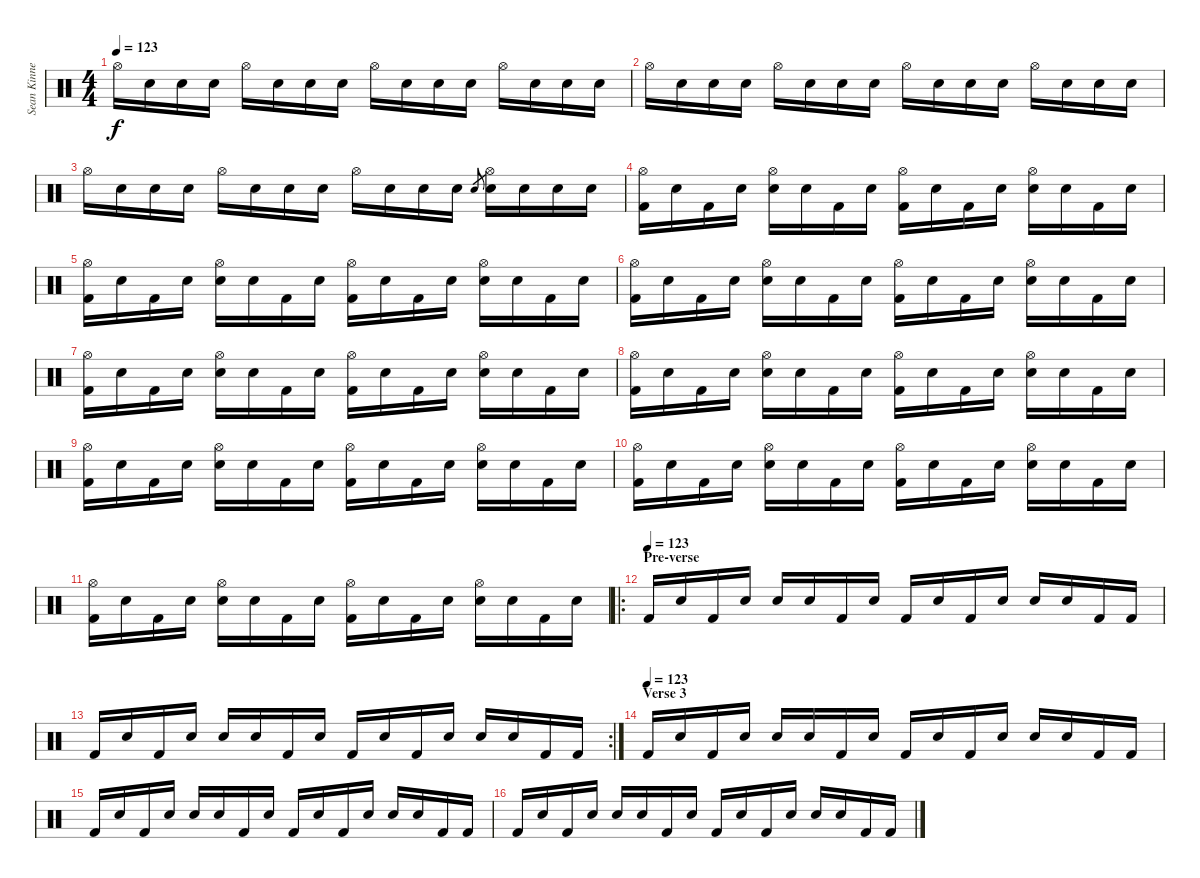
\track ("Sean Kinney - Drums" "Sean Kinne") {instrument percussion}
\staff {score}
\articulation defaults
\ts (4 4)
\tempo 123
\clef neutral
\ks c "Hi-Hat (open)".16{dy f} "Snare (hit)".16 "Snare (hit)".16 "Snare (hit)".16 "Hi-Hat (open)".16 "Snare (hit)".16 "Snare (hit)".16 "Snare (hit)".16 "Hi-Hat (open)".16 "Snare (hit)".16 "Snare (hit)".16 "Snare (hit)".16 "Hi-Hat (open)".16 "Snare (hit)".16 "Snare (hit)".16 "Snare (hit)".16
|
"Hi-Hat (open)".16 "Snare (hit)".16 "Snare (hit)".16 "Snare (hit)".16 "Hi-Hat (open)".16 "Snare (hit)".16 "Snare (hit)".16 "Snare (hit)".16 "Hi-Hat (open)".16 "Snare (hit)".16 "Snare (hit)".16 "Snare (hit)".16 "Hi-Hat (open)".16 "Snare (hit)".16 "Snare (hit)".16 "Snare (hit)".16 |
"Hi-Hat (open)".16 "Snare (hit)".16 "Snare (hit)".16 "Snare (hit)".16 "Hi-Hat (open)".16 "Snare (hit)".16 "Snare (hit)".16 "Snare (hit)".16 "Hi-Hat (open)".16 "Snare (hit)".16 "Snare (hit)".16 "Snare (hit)".16 "Electric Snare (hit)".8{gr} ("Hi-Hat (open)" "Electric Snare (hit)").16 "Snare (hit)".16 "Snare (hit)".16 "Snare (hit)".16 |
("Hi-Hat (open)" "Kick (hit) 2").16 "Snare (hit)".16 "Kick (hit) 2".16 "Snare (hit)".16 ("Hi-Hat (open)" "Electric Snare (hit)").16 "Snare (hit)".16 "Kick (hit) 2".16 "Snare (hit)".16 ("Hi-Hat (open)" "Kick (hit) 2").16 "Snare (hit)".16 "Kick (hit) 2".16 "Snare (hit)".16 ("Hi-Hat (open)" "Electric Snare (hit)").16 "Snare (hit)".16 "Kick (hit) 2".16 "Snare (hit)".16 |
("Hi-Hat (open)" "Kick (hit) 2").16 "Snare (hit)".16 "Kick (hit) 2".16 "Snare (hit)".16 ("Hi-Hat (open)" "Electric Snare (hit)").16 "Snare (hit)".16 "Kick (hit) 2".16 "Snare (hit)".16 ("Hi-Hat (open)" "Kick (hit) 2").16 "Snare (hit)".16 "Kick (hit) 2".16 "Snare (hit)".16 ("Hi-Hat (open)" "Electric Snare (hit)").16 "Snare (hit)".16 "Kick (hit) 2".16 "Snare (hit)".16 |
("Hi-Hat (open)" "Kick (hit) 2").16 "Snare (hit)".16 "Kick (hit) 2".16 "Snare (hit)".16 ("Hi-Hat (open)" "Electric Snare (hit)").16 "Snare (hit)".16 "Kick (hit) 2".16 "Snare (hit)".16 ("Hi-Hat (open)" "Kick (hit) 2").16 "Snare (hit)".16 "Kick (hit) 2".16 "Snare (hit)".16 ("Hi-Hat (open)" "Electric Snare (hit)").16 "Snare (hit)".16 "Kick (hit) 2".16 "Snare (hit)".16 |
("Hi-Hat (open)" "Kick (hit) 2").16 "Snare (hit)".16 "Kick (hit) 2".16 "Snare (hit)".16 ("Hi-Hat (open)" "Electric Snare (hit)").16 "Snare (hit)".16 "Kick (hit) 2".16 "Snare (hit)".16 ("Hi-Hat (open)" "Kick (hit) 2").16 "Snare (hit)".16 "Kick (hit) 2".16 "Snare (hit)".16 ("Hi-Hat (open)" "Electric Snare (hit)").16 "Snare (hit)".16 "Kick (hit) 2".16 "Snare (hit)".16 |
("Hi-Hat (open)" "Kick (hit) 2").16 "Snare (hit)".16 "Kick (hit) 2".16 "Snare (hit)".16 ("Hi-Hat (open)" "Electric Snare (hit)").16 "Snare (hit)".16 "Kick (hit) 2".16 "Snare (hit)".16 ("Hi-Hat (open)" "Kick (hit) 2").16 "Snare (hit)".16 "Kick (hit) 2".16 "Snare (hit)".16 ("Hi-Hat (open)" "Electric Snare (hit)").16 "Snare (hit)".16 "Kick (hit) 2".16 "Snare (hit)".16 |
("Hi-Hat (open)" "Kick (hit) 2").16 "Snare (hit)".16 "Kick (hit) 2".16 "Snare (hit)".16 ("Hi-Hat (open)" "Electric Snare (hit)").16 "Snare (hit)".16 "Kick (hit) 2".16 "Snare (hit)".16 ("Hi-Hat (open)" "Kick (hit) 2").16 "Snare (hit)".16 "Kick (hit) 2".16 "Snare (hit)".16 ("Hi-Hat (open)" "Electric Snare (hit)").16 "Snare (hit)".16 "Kick (hit) 2".16 "Snare (hit)".16 |
("Hi-Hat (open)" "Kick (hit) 2").16 "Snare (hit)".16 "Kick (hit) 2".16 "Snare (hit)".16 ("Hi-Hat (open)" "Electric Snare (hit)").16 "Snare (hit)".16 "Kick (hit) 2".16 "Snare (hit)".16 ("Hi-Hat (open)" "Kick (hit) 2").16 "Snare (hit)".16 "Kick (hit) 2".16 "Snare (hit)".16 ("Hi-Hat (open)" "Electric Snare (hit)").16 "Snare (hit)".16 "Kick (hit) 2".16 "Snare (hit)".16 |
("Hi-Hat (open)" "Kick (hit) 2").16 "Snare (hit)".16 "Kick (hit) 2".16 "Snare (hit)".16 ("Hi-Hat (open)" "Electric Snare (hit)").16 "Snare (hit)".16 "Kick (hit) 2".16 "Snare (hit)".16 ("Hi-Hat (open)" "Kick (hit) 2").16 "Snare (hit)".16 "Kick (hit) 2".16 "Snare (hit)".16 ("Hi-Hat (open)" "Electric Snare (hit)").16 "Snare (hit)".16 "Kick (hit) 2".16 "Snare (hit)".16 |
\ro
\section ("" "Pre-verse")
\tempo (123)
"Kick (hit) 2".16{volume 16 balance 8} "Snare (hit)".16 "Kick (hit) 2".16 "Snare (hit)".16 "Electric Snare (hit)".16 "Snare (hit)".16 "Kick (hit) 2".16 "Snare (hit)".16 "Kick (hit) 2".16 "Snare (hit)".16 "Kick (hit) 2".16 "Snare (hit)".16 "Electric Snare (hit)".16 "Snare (hit)".16 "Kick (hit) 2".16 "Kick (hit) 2".16 |
\rc 2 "Kick (hit) 2".16 "Snare (hit)".16 "Kick (hit) 2".16 "Snare (hit)".16 "Electric Snare (hit)".16 "Snare (hit)".16 "Kick (hit) 2".16 "Snare (hit)".16 "Kick (hit) 2".16 "Snare (hit)".16 "Kick (hit) 2".16 "Snare (hit)".16 "Electric Snare (hit)".16 "Snare (hit)".16 "Kick (hit) 2".16 "Kick (hit) 2".16
|
\section ("" "Verse 3")
\tempo (123)
"Kick (hit) 2".16{volume 16 balance 8} "Snare (hit)".16 "Kick (hit) 2".16 "Snare (hit)".16 "Electric Snare (hit)".16 "Snare (hit)".16 "Kick (hit) 2".16 "Snare (hit)".16 "Kick (hit) 2".16 "Snare (hit)".16 "Kick (hit) 2".16 "Snare (hit)".16 "Electric Snare (hit)".16 "Snare (hit)".16 "Kick (hit) 2".16 "Kick (hit) 2".16 |
"Kick (hit) 2".16 "Snare (hit)".16 "Kick (hit) 2".16 "Snare (hit)".16 "Electric Snare (hit)".16 "Snare (hit)".16 "Kick (hit) 2".16 "Snare (hit)".16 "Kick (hit) 2".16 "Snare (hit)".16 "Kick (hit) 2".16 "Snare (hit)".16 "Electric Snare (hit)".16 "Snare (hit)".16 "Kick (hit) 2".16 "Kick (hit) 2".16 |
"Kick (hit) 2".16 "Snare (hit)".16 "Kick (hit) 2".16 "Snare (hit)".16 "Electric Snare (hit)".16 "Snare (hit)".16 "Kick (hit) 2".16 "Snare (hit)".16 "Kick (hit) 2".16 "Snare (hit)".16 "Kick (hit) 2".16 "Snare (hit)".16 "Electric Snare (hit)".16 "Snare (hit)".16 "Kick (hit) 2".16 "Kick (hit) 2".16
